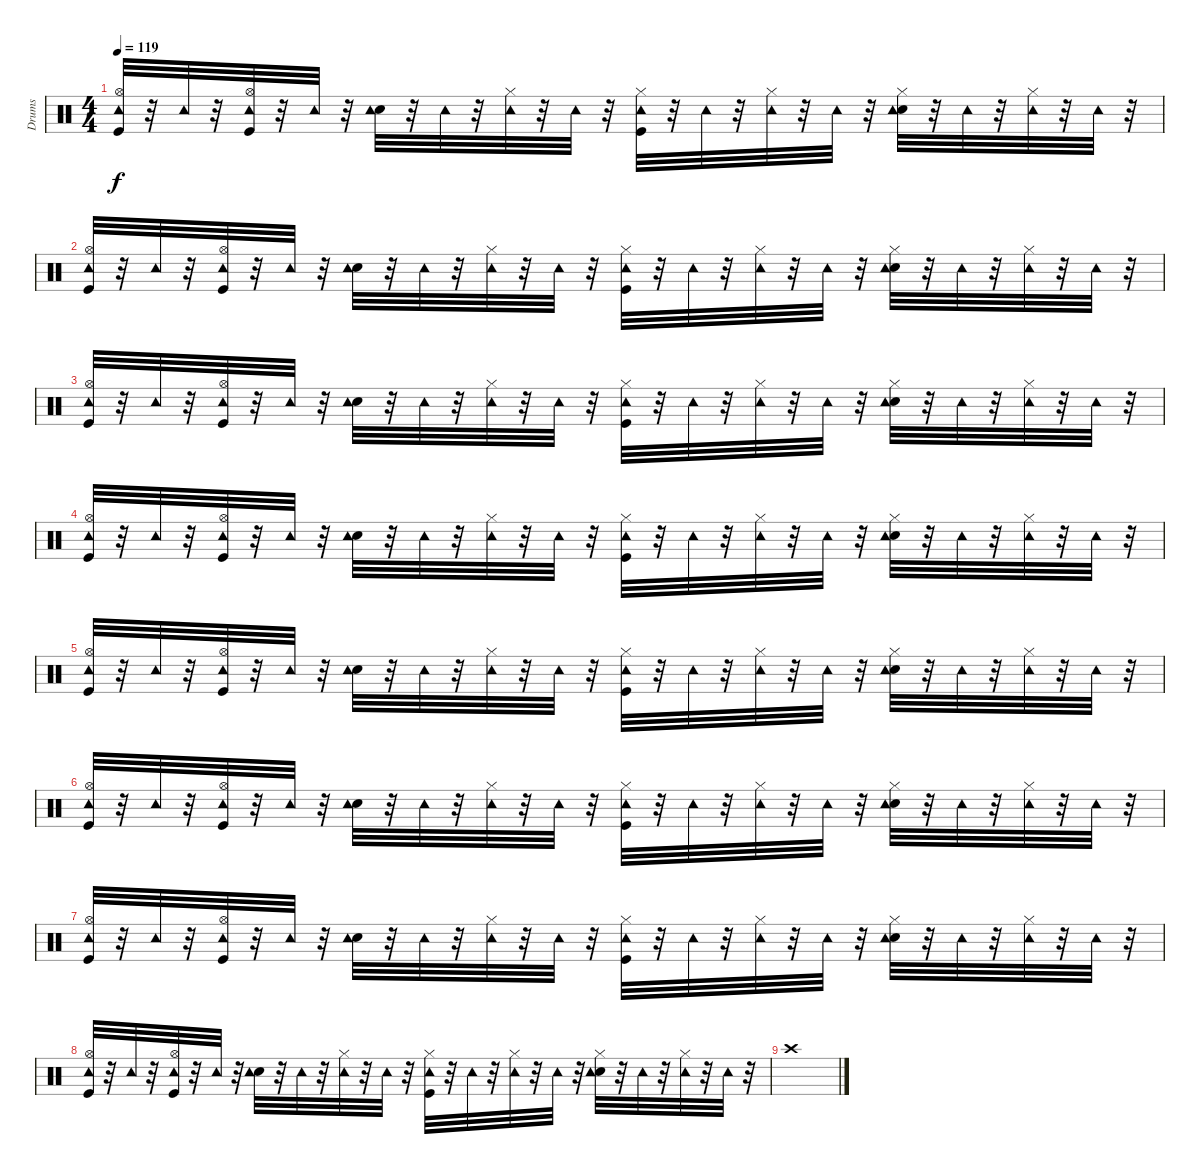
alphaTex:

\track ("Drums" "Drums") {instrument percussion}
\staff {score}
\articulation defaults
\ts (4 4)
\tempo 119
\clef neutral
\ks c
("Kick (hit)" "Hi-Hat (open)" "Tambourine (hit)").32{dy f} r.32 "Tambourine (hit)".32 r.32 ("Kick (hit)" "Hi-Hat (open)" "Tambourine (hit)").32 r.32 "Tambourine (hit)".32 r.32 ("Electric Snare (hit)" "Tambourine (hit)").32 r.32 "Tambourine (hit)".32 r.32 ("Hi-Hat (closed)" "Tambourine (hit)").32 r.32 "Tambourine (hit)".32 r.32 ("Kick (hit)" "Hi-Hat (closed)" "Tambourine (hit)").32 r.32 "Tambourine (hit)".32 r.32 ("Hi-Hat (closed)" "Tambourine (hit)").32 r.32 "Tambourine (hit)".32 r.32 ("Electric Snare (hit)" "Hi-Hat (closed)" "Tambourine (hit)").32 r.32 "Tambourine (hit)".32 r.32 ("Hi-Hat (closed)" "Tambourine (hit)").32 r.32 "Tambourine (hit)".32 r.32 |
("Kick (hit)" "Hi-Hat (open)" "Tambourine (hit)").32 r.32 "Tambourine (hit)".32 r.32 ("Kick (hit)" "Hi-Hat (open)" "Tambourine (hit)").32 r.32 "Tambourine (hit)".32 r.32 ("Electric Snare (hit)" "Tambourine (hit)").32 r.32 "Tambourine (hit)".32 r.32 ("Hi-Hat (closed)" "Tambourine (hit)").32 r.32 "Tambourine (hit)".32 r.32 ("Kick (hit)" "Hi-Hat (closed)" "Tambourine (hit)").32 r.32 "Tambourine (hit)".32 r.32 ("Hi-Hat (closed)" "Tambourine (hit)").32 r.32 "Tambourine (hit)".32 r.32 ("Electric Snare (hit)" "Hi-Hat (closed)" "Tambourine (hit)").32 r.32 "Tambourine (hit)".32 r.32 ("Hi-Hat (closed)" "Tambourine (hit)").32 r.32 "Tambourine (hit)".32 r.32 |
("Kick (hit)" "Hi-Hat (open)" "Tambourine (hit)").32 r.32 "Tambourine (hit)".32 r.32 ("Kick (hit)" "Hi-Hat (open)" "Tambourine (hit)").32 r.32 "Tambourine (hit)".32 r.32 ("Electric Snare (hit)" "Tambourine (hit)").32 r.32 "Tambourine (hit)".32 r.32 ("Hi-Hat (closed)" "Tambourine (hit)").32 r.32 "Tambourine (hit)".32 r.32 ("Kick (hit)" "Hi-Hat (closed)" "Tambourine (hit)").32 r.32 "Tambourine (hit)".32 r.32 ("Hi-Hat (closed)" "Tambourine (hit)").32 r.32 "Tambourine (hit)".32 r.32 ("Electric Snare (hit)" "Hi-Hat (closed)" "Tambourine (hit)").32 r.32 "Tambourine (hit)".32 r.32 ("Hi-Hat (closed)" "Tambourine (hit)").32 r.32 "Tambourine (hit)".32 r.32 |
("Kick (hit)" "Hi-Hat (open)" "Tambourine (hit)").32 r.32 "Tambourine (hit)".32 r.32 ("Kick (hit)" "Hi-Hat (open)" "Tambourine (hit)").32 r.32 "Tambourine (hit)".32 r.32 ("Electric Snare (hit)" "Tambourine (hit)").32 r.32 "Tambourine (hit)".32 r.32 ("Hi-Hat (closed)" "Tambourine (hit)").32 r.32 "Tambourine (hit)".32 r.32 ("Kick (hit)" "Hi-Hat (closed)" "Tambourine (hit)").32 r.32 "Tambourine (hit)".32 r.32 ("Hi-Hat (closed)" "Tambourine (hit)").32 r.32 "Tambourine (hit)".32 r.32 ("Electric Snare (hit)" "Hi-Hat (closed)" "Tambourine (hit)").32 r.32 "Tambourine (hit)".32 r.32 ("Hi-Hat (closed)" "Tambourine (hit)").32 r.32 "Tambourine (hit)".32 r.32 |
("Kick (hit)" "Hi-Hat (open)" "Tambourine (hit)").32 r.32 "Tambourine (hit)".32 r.32 ("Kick (hit)" "Hi-Hat (open)" "Tambourine (hit)").32 r.32 "Tambourine (hit)".32 r.32 ("Electric Snare (hit)" "Tambourine (hit)").32 r.32 "Tambourine (hit)".32 r.32 ("Hi-Hat (closed)" "Tambourine (hit)").32 r.32 "Tambourine (hit)".32 r.32 ("Kick (hit)" "Hi-Hat (closed)" "Tambourine (hit)").32 r.32 "Tambourine (hit)".32 r.32 ("Hi-Hat (closed)" "Tambourine (hit)").32 r.32 "Tambourine (hit)".32 r.32 ("Electric Snare (hit)" "Hi-Hat (closed)" "Tambourine (hit)").32 r.32 "Tambourine (hit)".32 r.32 ("Hi-Hat (closed)" "Tambourine (hit)").32 r.32 "Tambourine (hit)".32 r.32 |
("Kick (hit)" "Hi-Hat (open)" "Tambourine (hit)").32 r.32 "Tambourine (hit)".32 r.32 ("Kick (hit)" "Hi-Hat (open)" "Tambourine (hit)").32 r.32 "Tambourine (hit)".32 r.32 ("Electric Snare (hit)" "Tambourine (hit)").32 r.32 "Tambourine (hit)".32 r.32 ("Hi-Hat (closed)" "Tambourine (hit)").32 r.32 "Tambourine (hit)".32 r.32 ("Kick (hit)" "Hi-Hat (closed)" "Tambourine (hit)").32 r.32 "Tambourine (hit)".32 r.32 ("Hi-Hat (closed)" "Tambourine (hit)").32 r.32 "Tambourine (hit)".32 r.32 ("Electric Snare (hit)" "Hi-Hat (closed)" "Tambourine (hit)").32 r.32 "Tambourine (hit)".32 r.32 ("Hi-Hat (closed)" "Tambourine (hit)").32 r.32 "Tambourine (hit)".32 r.32 |
("Kick (hit)" "Hi-Hat (open)" "Tambourine (hit)").32 r.32 "Tambourine (hit)".32 r.32 ("Kick (hit)" "Hi-Hat (open)" "Tambourine (hit)").32 r.32 "Tambourine (hit)".32 r.32 ("Electric Snare (hit)" "Tambourine (hit)").32 r.32 "Tambourine (hit)".32 r.32 ("Hi-Hat (closed)" "Tambourine (hit)").32 r.32 "Tambourine (hit)".32 r.32 ("Kick (hit)" "Hi-Hat (closed)" "Tambourine (hit)").32 r.32 "Tambourine (hit)".32 r.32 ("Hi-Hat (closed)" "Tambourine (hit)").32 r.32 "Tambourine (hit)".32 r.32 ("Electric Snare (hit)" "Hi-Hat (closed)" "Tambourine (hit)").32 r.32 "Tambourine (hit)".32 r.32 ("Hi-Hat (closed)" "Tambourine (hit)").32 r.32 "Tambourine (hit)".32 r.32 |
("Kick (hit)" "Hi-Hat (open)" "Tambourine (hit)").32 r.32 "Tambourine (hit)".32 r.32 ("Kick (hit)" "Hi-Hat (open)" "Tambourine (hit)").32 r.32 "Tambourine (hit)".32 r.32 ("Electric Snare (hit)" "Tambourine (hit)").32 r.32 "Tambourine (hit)".32 r.32 ("Hi-Hat (closed)" "Tambourine (hit)").32 r.32 "Tambourine (hit)".32 r.32 ("Kick (hit)" "Hi-Hat (closed)" "Tambourine (hit)").32 r.32 "Tambourine (hit)".32 r.32 ("Hi-Hat (closed)" "Tambourine (hit)").32 r.32 "Tambourine (hit)".32 r.32 ("Electric Snare (hit)" "Hi-Hat (closed)" "Tambourine (hit)").32 r.32 "Tambourine (hit)".32 r.32 ("Hi-Hat (closed)" "Tambourine (hit)").32 r.32 "Tambourine (hit)".32 r.32 |
"Crash high (hit)".1
